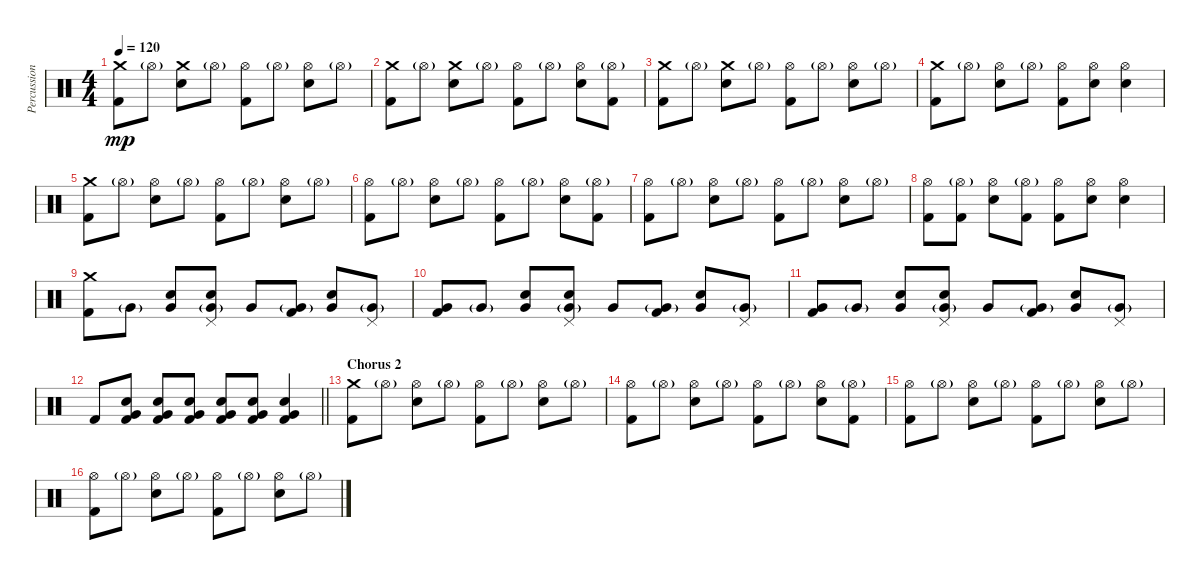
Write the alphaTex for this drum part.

\track ("Percussion" "Percussion") {instrument percussion}
\staff {score}
\articulation defaults
\ts (4 4)
\tempo 120
\clef neutral
\ks c
("Crash medium (hit)" "Kick (hit) 2").8{dy mp} "Hi-Hat (open)"{g}.8 ("Crash medium (hit)" "Electric Snare (hit)").8 "Hi-Hat (open)"{g}.8 ("Hi-Hat (open)" "Kick (hit) 2").8 "Hi-Hat (open)"{g}.8 ("Hi-Hat (open)" "Electric Snare (hit)").8 "Hi-Hat (open)"{g}.8 |
("Crash medium (hit)" "Kick (hit) 2").8 "Hi-Hat (open)"{g}.8 ("Crash medium (hit)" "Electric Snare (hit)").8 "Hi-Hat (open)"{g}.8 ("Hi-Hat (open)" "Kick (hit) 2").8 "Hi-Hat (open)"{g}.8 ("Hi-Hat (open)" "Electric Snare (hit)").8 ("Hi-Hat (open)"{g} "Kick (hit) 2").8 |
("Crash medium (hit)" "Kick (hit) 2").8 "Hi-Hat (open)"{g}.8 ("Crash medium (hit)" "Electric Snare (hit)").8 "Hi-Hat (open)"{g}.8 ("Hi-Hat (open)" "Kick (hit) 2").8 "Hi-Hat (open)"{g}.8 ("Hi-Hat (open)" "Electric Snare (hit)").8 "Hi-Hat (open)"{g}.8 |
("Crash medium (hit)" "Kick (hit) 2").8 "Hi-Hat (open)"{g}.8 ("Hi-Hat (open)" "Electric Snare (hit)").8 "Hi-Hat (open)"{g}.8 ("Hi-Hat (open)" "Kick (hit) 2").8 ("Hi-Hat (open)" "Electric Snare (hit)").8 ("Hi-Hat (open)" "Electric Snare (hit)").4 |
("Crash medium (hit)" "Kick (hit) 2").8 "Hi-Hat (open)"{g}.8 ("Hi-Hat (open)" "Electric Snare (hit)").8 "Hi-Hat (open)"{g}.8 ("Hi-Hat (open)" "Kick (hit) 2").8 "Hi-Hat (open)"{g}.8 ("Hi-Hat (open)" "Electric Snare (hit)").8 "Hi-Hat (open)"{g}.8 |
("Hi-Hat (open)" "Kick (hit) 2").8 "Hi-Hat (open)"{g}.8 ("Hi-Hat (open)" "Electric Snare (hit)").8 "Hi-Hat (open)"{g}.8 ("Hi-Hat (open)" "Kick (hit) 2").8 "Hi-Hat (open)"{g}.8 ("Hi-Hat (open)" "Electric Snare (hit)").8 ("Hi-Hat (open)"{g} "Kick (hit) 2").8 |
("Hi-Hat (open)" "Kick (hit) 2").8 "Hi-Hat (open)"{g}.8 ("Hi-Hat (open)" "Electric Snare (hit)").8 "Hi-Hat (open)"{g}.8 ("Hi-Hat (open)" "Kick (hit) 2").8 "Hi-Hat (open)"{g}.8 ("Hi-Hat (open)" "Electric Snare (hit)").8 "Hi-Hat (open)"{g}.8 |
("Hi-Hat (open)" "Kick (hit) 2").8 ("Hi-Hat (open)"{g} "Kick (hit) 2").8 ("Hi-Hat (open)" "Electric Snare (hit)").8 ("Hi-Hat (open)"{g} "Kick (hit) 2").8 ("Hi-Hat (open)" "Kick (hit) 2").8 ("Hi-Hat (open)" "Electric Snare (hit)").8 ("Hi-Hat (open)" "Electric Snare (hit)").4 |
("Crash medium (hit)" "Kick (hit) 2").8 "Very Low Tom (hit)"{g}.8 ("Very Low Tom (hit)" "Electric Snare (hit)").8 ("Very Low Tom (hit)"{g} "Pedal Hi-Hat (hit)" "Electric Snare (hit)").8 "Very Low Tom (hit)".8 ("Very Low Tom (hit)"{g} "Kick (hit) 2").8 ("Very Low Tom (hit)" "Electric Snare (hit)").8 ("Very Low Tom (hit)"{g} "Pedal Hi-Hat (hit)").8 |
("Very Low Tom (hit)" "Kick (hit) 2").8 "Very Low Tom (hit)"{g}.8 ("Very Low Tom (hit)" "Electric Snare (hit)").8 ("Very Low Tom (hit)"{g} "Pedal Hi-Hat (hit)" "Electric Snare (hit)").8 "Very Low Tom (hit)".8 ("Very Low Tom (hit)"{g} "Kick (hit) 2").8 ("Very Low Tom (hit)" "Electric Snare (hit)").8 ("Very Low Tom (hit)"{g} "Pedal Hi-Hat (hit)").8 |
("Very Low Tom (hit)" "Kick (hit) 2").8 "Very Low Tom (hit)"{g}.8 ("Very Low Tom (hit)" "Electric Snare (hit)").8 ("Very Low Tom (hit)"{g} "Pedal Hi-Hat (hit)" "Electric Snare (hit)").8 "Very Low Tom (hit)".8 ("Very Low Tom (hit)"{g} "Kick (hit) 2").8 ("Very Low Tom (hit)" "Electric Snare (hit)").8 ("Very Low Tom (hit)"{g} "Pedal Hi-Hat (hit)").8 |
\barLineRight lightlight "Kick (hit) 2".8
("Very Low Tom (hit)" "Electric Snare (hit)" "Kick (hit) 2").8 ("Very Low Tom (hit)" "Electric Snare (hit)" "Kick (hit) 2").8 ("Very Low Tom (hit)" "Electric Snare (hit)" "Kick (hit) 2").8 ("Very Low Tom (hit)" "Electric Snare (hit)" "Kick (hit) 2").8 ("Very Low Tom (hit)" "Electric Snare (hit)" "Kick (hit) 2").8 ("Very Low Tom (hit)" "Electric Snare (hit)" "Kick (hit) 2").4 |
\section ("" "Chorus 2")
("Crash medium (hit)" "Kick (hit) 2").8 "Hi-Hat (open)"{g}.8 ("Hi-Hat (open)" "Electric Snare (hit)").8 "Hi-Hat (open)"{g}.8 ("Hi-Hat (open)" "Kick (hit) 2").8 "Hi-Hat (open)"{g}.8 ("Hi-Hat (open)" "Electric Snare (hit)").8 "Hi-Hat (open)"{g}.8 |
("Hi-Hat (open)" "Kick (hit) 2").8 "Hi-Hat (open)"{g}.8 ("Hi-Hat (open)" "Electric Snare (hit)").8 "Hi-Hat (open)"{g}.8 ("Hi-Hat (open)" "Kick (hit) 2").8 "Hi-Hat (open)"{g}.8 ("Hi-Hat (open)" "Electric Snare (hit)").8 ("Hi-Hat (open)"{g} "Kick (hit) 2").8 |
("Hi-Hat (open)" "Kick (hit) 2").8 "Hi-Hat (open)"{g}.8 ("Hi-Hat (open)" "Electric Snare (hit)").8 "Hi-Hat (open)"{g}.8 ("Hi-Hat (open)" "Kick (hit) 2").8 "Hi-Hat (open)"{g}.8 ("Hi-Hat (open)" "Electric Snare (hit)").8 "Hi-Hat (open)"{g}.8 |
("Hi-Hat (open)" "Kick (hit) 2").8 "Hi-Hat (open)"{g}.8 ("Hi-Hat (open)" "Electric Snare (hit)").8 "Hi-Hat (open)"{g}.8 ("Hi-Hat (open)" "Kick (hit) 2").8 "Hi-Hat (open)"{g}.8 ("Hi-Hat (open)" "Electric Snare (hit)").8 "Hi-Hat (open)"{g}.8
